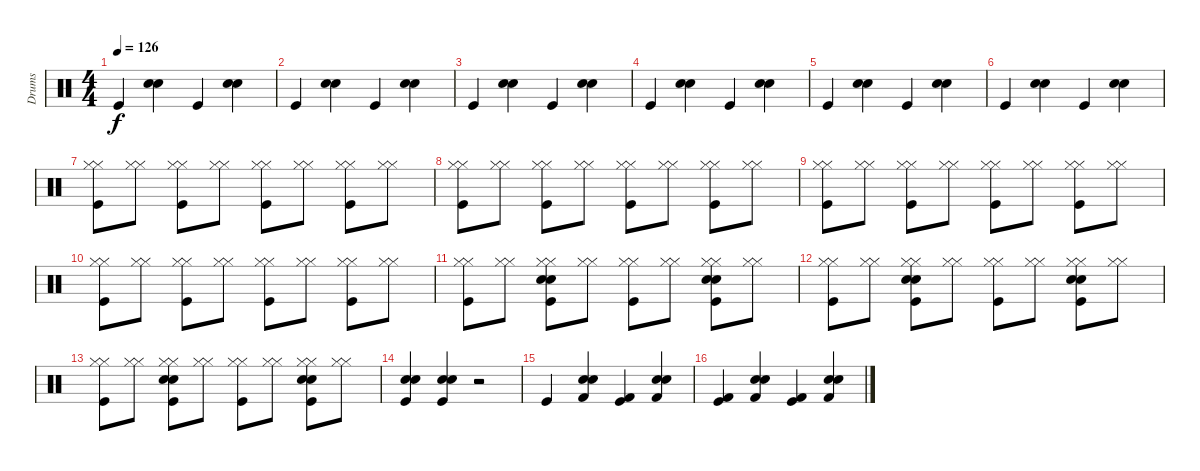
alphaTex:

\track ("Drums" "Drums") {instrument percussion}
\staff {score}
\articulation defaults
\ts (4 4)
\tempo 126
\clef neutral
\ks c "Kick (hit)".4{dy f}
("Snare (hit) 2" "Hand Clap (hit)").4 "Kick (hit)".4 ("Snare (hit) 2" "Hand Clap (hit)").4 |
"Kick (hit)".4 ("Snare (hit) 2" "Hand Clap (hit)").4 "Kick (hit)".4 ("Snare (hit) 2" "Hand Clap (hit)").4 |
"Kick (hit)".4 ("Snare (hit) 2" "Hand Clap (hit)").4 "Kick (hit)".4 ("Snare (hit) 2" "Hand Clap (hit)").4 |
"Kick (hit)".4 ("Snare (hit) 2" "Hand Clap (hit)").4 "Kick (hit)".4 ("Snare (hit) 2" "Hand Clap (hit)").4 |
"Kick (hit)".4 ("Snare (hit) 2" "Hand Clap (hit)").4 "Kick (hit)".4 ("Snare (hit) 2" "Hand Clap (hit)").4 |
"Kick (hit)".4 ("Snare (hit) 2" "Hand Clap (hit)").4 "Kick (hit)".4 ("Snare (hit) 2" "Hand Clap (hit)").4 |
("Kick (hit)" "Hi-Hat (closed)" "Hi-Hat (closed)").8 ("Hi-Hat (closed)" "Hi-Hat (closed)").8 ("Kick (hit)" "Hi-Hat (closed)" "Hi-Hat (closed)").8 ("Hi-Hat (closed)" "Hi-Hat (closed)").8 ("Kick (hit)" "Hi-Hat (closed)" "Hi-Hat (closed)").8 ("Hi-Hat (closed)" "Hi-Hat (closed)").8 ("Kick (hit)" "Hi-Hat (closed)" "Hi-Hat (closed)").8 ("Hi-Hat (closed)" "Hi-Hat (closed)").8 |
("Kick (hit)" "Hi-Hat (closed)" "Hi-Hat (closed)").8 ("Hi-Hat (closed)" "Hi-Hat (closed)").8 ("Kick (hit)" "Hi-Hat (closed)" "Hi-Hat (closed)").8 ("Hi-Hat (closed)" "Hi-Hat (closed)").8 ("Kick (hit)" "Hi-Hat (closed)" "Hi-Hat (closed)").8 ("Hi-Hat (closed)" "Hi-Hat (closed)").8 ("Kick (hit)" "Hi-Hat (closed)" "Hi-Hat (closed)").8 ("Hi-Hat (closed)" "Hi-Hat (closed)").8 |
("Kick (hit)" "Hi-Hat (closed)" "Hi-Hat (closed)").8 ("Hi-Hat (closed)" "Hi-Hat (closed)").8 ("Kick (hit)" "Hi-Hat (closed)" "Hi-Hat (closed)").8 ("Hi-Hat (closed)" "Hi-Hat (closed)").8 ("Kick (hit)" "Hi-Hat (closed)" "Hi-Hat (closed)").8 ("Hi-Hat (closed)" "Hi-Hat (closed)").8 ("Kick (hit)" "Hi-Hat (closed)" "Hi-Hat (closed)").8 ("Hi-Hat (closed)" "Hi-Hat (closed)").8 |
("Kick (hit)" "Hi-Hat (closed)" "Hi-Hat (closed)").8 ("Hi-Hat (closed)" "Hi-Hat (closed)").8 ("Kick (hit)" "Hi-Hat (closed)" "Hi-Hat (closed)").8 ("Hi-Hat (closed)" "Hi-Hat (closed)").8 ("Kick (hit)" "Hi-Hat (closed)" "Hi-Hat (closed)").8 ("Hi-Hat (closed)" "Hi-Hat (closed)").8 ("Kick (hit)" "Hi-Hat (closed)" "Hi-Hat (closed)").8 ("Hi-Hat (closed)" "Hi-Hat (closed)").8 |
("Kick (hit)" "Hi-Hat (closed)" "Hi-Hat (closed)").8 ("Hi-Hat (closed)" "Hi-Hat (closed)").8 ("Kick (hit)" "Hi-Hat (closed)" "Snare (hit) 2" "Hand Clap (hit)" "Hi-Hat (closed)").8 ("Hi-Hat (closed)" "Hi-Hat (closed)").8 ("Kick (hit)" "Hi-Hat (closed)" "Hi-Hat (closed)").8 ("Hi-Hat (closed)" "Hi-Hat (closed)").8 ("Kick (hit)" "Hi-Hat (closed)" "Snare (hit) 2" "Hand Clap (hit)" "Hi-Hat (closed)").8 ("Hi-Hat (closed)" "Hi-Hat (closed)").8 |
("Kick (hit)" "Hi-Hat (closed)" "Hi-Hat (closed)").8 ("Hi-Hat (closed)" "Hi-Hat (closed)").8 ("Kick (hit)" "Hi-Hat (closed)" "Snare (hit) 2" "Hand Clap (hit)" "Hi-Hat (closed)").8 ("Hi-Hat (closed)" "Hi-Hat (closed)").8 ("Kick (hit)" "Hi-Hat (closed)" "Hi-Hat (closed)").8 ("Hi-Hat (closed)" "Hi-Hat (closed)").8 ("Kick (hit)" "Hi-Hat (closed)" "Snare (hit) 2" "Hand Clap (hit)" "Hi-Hat (closed)").8 ("Hi-Hat (closed)" "Hi-Hat (closed)").8 |
("Kick (hit)" "Hi-Hat (closed)" "Hi-Hat (closed)").8 ("Hi-Hat (closed)" "Hi-Hat (closed)").8 ("Kick (hit)" "Hi-Hat (closed)" "Snare (hit) 2" "Hand Clap (hit)" "Hi-Hat (closed)").8 ("Hi-Hat (closed)" "Hi-Hat (closed)").8 ("Kick (hit)" "Hi-Hat (closed)" "Hi-Hat (closed)").8 ("Hi-Hat (closed)" "Hi-Hat (closed)").8 ("Kick (hit)" "Hi-Hat (closed)" "Snare (hit) 2" "Hand Clap (hit)" "Hi-Hat (closed)").8 ("Hi-Hat (closed)" "Hi-Hat (closed)").8 |
("Kick (hit)" "Snare (hit) 2" "Hand Clap (hit)").4 ("Kick (hit)" "Snare (hit) 2" "Hand Clap (hit)").4 r.2 |
"Kick (hit)".4 ("Snare (hit) 2" "Hand Clap (hit)" "Kick (hit) 2").4 ("Kick (hit)" "Kick (hit) 2").4 ("Snare (hit) 2" "Hand Clap (hit)" "Kick (hit) 2").4 |
("Kick (hit)" "Kick (hit) 2").4 ("Snare (hit) 2" "Hand Clap (hit)" "Kick (hit) 2").4 ("Kick (hit)" "Kick (hit) 2").4 ("Snare (hit) 2" "Hand Clap (hit)" "Kick (hit) 2").4
